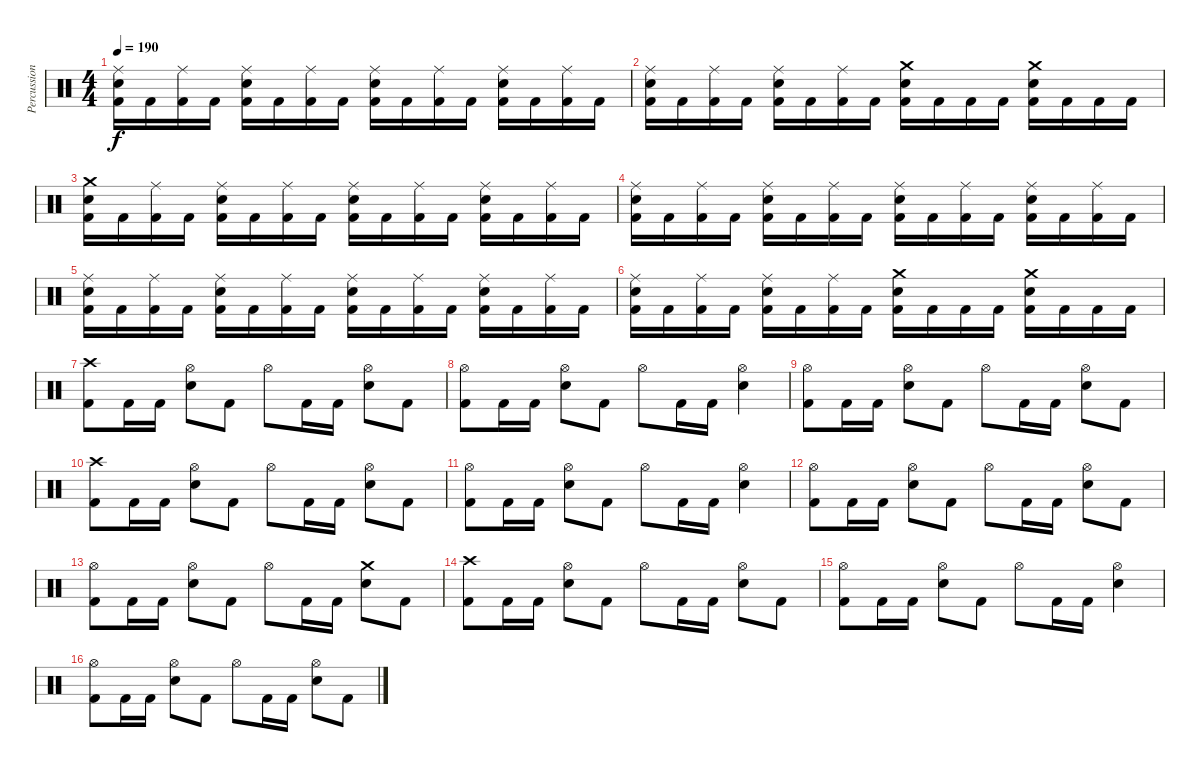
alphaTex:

\track ("Percussion" "Percussion") {instrument percussion}
\staff {score}
\articulation defaults
\ts (4 4)
\tempo 190
\clef neutral
\ks c
("Ride (middle)" "Snare (hit) 2" "Kick (hit) 2").16{dy f} "Kick (hit) 2".16 ("Ride (middle)" "Kick (hit) 2").16 "Kick (hit) 2".16 ("Ride (middle)" "Snare (hit) 2" "Kick (hit) 2").16 "Kick (hit) 2".16 ("Ride (middle)" "Kick (hit) 2").16 "Kick (hit) 2".16 ("Ride (middle)" "Snare (hit) 2" "Kick (hit) 2").16 "Kick (hit) 2".16 ("Ride (middle)" "Kick (hit) 2").16 "Kick (hit) 2".16 ("Ride (middle)" "Snare (hit) 2" "Kick (hit) 2").16 "Kick (hit) 2".16 ("Ride (middle)" "Kick (hit) 2").16 "Kick (hit) 2".16 |
("Ride (middle)" "Snare (hit) 2" "Kick (hit) 2").16 "Kick (hit) 2".16 ("Ride (middle)" "Kick (hit) 2").16 "Kick (hit) 2".16 ("Ride (middle)" "Snare (hit) 2" "Kick (hit) 2").16 "Kick (hit) 2".16 ("Ride (middle)" "Kick (hit) 2").16 "Kick (hit) 2".16 ("Crash medium (hit)" "Snare (hit) 2" "Kick (hit) 2").16 "Kick (hit) 2".16 "Kick (hit) 2".16 "Kick (hit) 2".16 ("Crash medium (hit)" "Snare (hit) 2" "Kick (hit) 2").16 "Kick (hit) 2".16 "Kick (hit) 2".16 "Kick (hit) 2".16 |
("Crash medium (hit)" "Snare (hit) 2" "Kick (hit) 2").16 "Kick (hit) 2".16 ("Ride (middle)" "Kick (hit) 2").16 "Kick (hit) 2".16 ("Ride (middle)" "Snare (hit) 2" "Kick (hit) 2").16 "Kick (hit) 2".16 ("Ride (middle)" "Kick (hit) 2").16 "Kick (hit) 2".16 ("Ride (middle)" "Snare (hit) 2" "Kick (hit) 2").16 "Kick (hit) 2".16 ("Ride (middle)" "Kick (hit) 2").16 "Kick (hit) 2".16 ("Ride (middle)" "Snare (hit) 2" "Kick (hit) 2").16 "Kick (hit) 2".16 ("Ride (middle)" "Kick (hit) 2").16 "Kick (hit) 2".16 |
("Ride (middle)" "Snare (hit) 2" "Kick (hit) 2").16 "Kick (hit) 2".16 ("Ride (middle)" "Kick (hit) 2").16 "Kick (hit) 2".16 ("Ride (middle)" "Snare (hit) 2" "Kick (hit) 2").16 "Kick (hit) 2".16 ("Ride (middle)" "Kick (hit) 2").16 "Kick (hit) 2".16 ("Ride (middle)" "Snare (hit) 2" "Kick (hit) 2").16 "Kick (hit) 2".16 ("Ride (middle)" "Kick (hit) 2").16 "Kick (hit) 2".16 ("Ride (middle)" "Snare (hit) 2" "Kick (hit) 2").16 "Kick (hit) 2".16 ("Ride (middle)" "Kick (hit) 2").16 "Kick (hit) 2".16 |
("Ride (middle)" "Snare (hit) 2" "Kick (hit) 2").16 "Kick (hit) 2".16 ("Ride (middle)" "Kick (hit) 2").16 "Kick (hit) 2".16 ("Ride (middle)" "Snare (hit) 2" "Kick (hit) 2").16 "Kick (hit) 2".16 ("Ride (middle)" "Kick (hit) 2").16 "Kick (hit) 2".16 ("Ride (middle)" "Snare (hit) 2" "Kick (hit) 2").16 "Kick (hit) 2".16 ("Ride (middle)" "Kick (hit) 2").16 "Kick (hit) 2".16 ("Ride (middle)" "Snare (hit) 2" "Kick (hit) 2").16 "Kick (hit) 2".16 ("Ride (middle)" "Kick (hit) 2").16 "Kick (hit) 2".16 |
("Ride (middle)" "Snare (hit) 2" "Kick (hit) 2").16 "Kick (hit) 2".16 ("Ride (middle)" "Kick (hit) 2").16 "Kick (hit) 2".16 ("Ride (middle)" "Snare (hit) 2" "Kick (hit) 2").16 "Kick (hit) 2".16 ("Ride (middle)" "Kick (hit) 2").16 "Kick (hit) 2".16 ("Crash medium (hit)" "Snare (hit) 2" "Kick (hit) 2").16 "Kick (hit) 2".16 "Kick (hit) 2".16 "Kick (hit) 2".16 ("Crash medium (hit)" "Snare (hit) 2" "Kick (hit) 2").16 "Kick (hit) 2".16 "Kick (hit) 2".16 "Kick (hit) 2".16 |
("Crash high (hit)" "Kick (hit) 2").8 "Kick (hit) 2".16 "Kick (hit) 2".16 ("Hi-Hat (open)" "Snare (hit) 2").8 "Kick (hit) 2".8 "Hi-Hat (open)".8 "Kick (hit) 2".16 "Kick (hit) 2".16 ("Hi-Hat (open)" "Snare (hit) 2").8 "Kick (hit) 2".8 |
("Hi-Hat (open)" "Kick (hit) 2").8 "Kick (hit) 2".16 "Kick (hit) 2".16 ("Hi-Hat (open)" "Snare (hit) 2").8 "Kick (hit) 2".8 "Hi-Hat (open)".8 "Kick (hit) 2".16 "Kick (hit) 2".16 ("Hi-Hat (open)" "Snare (hit) 2").4 |
("Hi-Hat (open)" "Kick (hit) 2").8 "Kick (hit) 2".16 "Kick (hit) 2".16 ("Hi-Hat (open)" "Snare (hit) 2").8 "Kick (hit) 2".8 "Hi-Hat (open)".8 "Kick (hit) 2".16 "Kick (hit) 2".16 ("Hi-Hat (open)" "Snare (hit) 2").8 "Kick (hit) 2".8 |
("Crash high (hit)" "Kick (hit) 2").8 "Kick (hit) 2".16 "Kick (hit) 2".16 ("Hi-Hat (open)" "Snare (hit) 2").8 "Kick (hit) 2".8 "Hi-Hat (open)".8 "Kick (hit) 2".16 "Kick (hit) 2".16 ("Hi-Hat (open)" "Snare (hit) 2").8 "Kick (hit) 2".8 |
("Hi-Hat (open)" "Kick (hit) 2").8 "Kick (hit) 2".16 "Kick (hit) 2".16 ("Hi-Hat (open)" "Snare (hit) 2").8 "Kick (hit) 2".8 "Hi-Hat (open)".8 "Kick (hit) 2".16 "Kick (hit) 2".16 ("Hi-Hat (open)" "Snare (hit) 2").4 |
("Hi-Hat (open)" "Kick (hit) 2").8 "Kick (hit) 2".16 "Kick (hit) 2".16 ("Hi-Hat (open)" "Snare (hit) 2").8 "Kick (hit) 2".8 "Hi-Hat (open)".8 "Kick (hit) 2".16 "Kick (hit) 2".16 ("Hi-Hat (open)" "Snare (hit) 2").8 "Kick (hit) 2".8 |
("Hi-Hat (open)" "Kick (hit) 2").8 "Kick (hit) 2".16 "Kick (hit) 2".16 ("Hi-Hat (open)" "Snare (hit) 2").8 "Kick (hit) 2".8 "Hi-Hat (open)".8 "Kick (hit) 2".16 "Kick (hit) 2".16 ("Crash medium (hit)" "Snare (hit) 2").8 "Kick (hit) 2".8 |
("Crash high (hit)" "Kick (hit) 2").8 "Kick (hit) 2".16 "Kick (hit) 2".16 ("Hi-Hat (open)" "Snare (hit) 2").8 "Kick (hit) 2".8 "Hi-Hat (open)".8 "Kick (hit) 2".16 "Kick (hit) 2".16 ("Hi-Hat (open)" "Snare (hit) 2").8 "Kick (hit) 2".8 |
("Hi-Hat (open)" "Kick (hit) 2").8 "Kick (hit) 2".16 "Kick (hit) 2".16 ("Hi-Hat (open)" "Snare (hit) 2").8 "Kick (hit) 2".8 "Hi-Hat (open)".8 "Kick (hit) 2".16 "Kick (hit) 2".16 ("Hi-Hat (open)" "Snare (hit) 2").4 |
("Hi-Hat (open)" "Kick (hit) 2").8 "Kick (hit) 2".16 "Kick (hit) 2".16 ("Hi-Hat (open)" "Snare (hit) 2").8 "Kick (hit) 2".8 "Hi-Hat (open)".8 "Kick (hit) 2".16 "Kick (hit) 2".16 ("Hi-Hat (open)" "Snare (hit) 2").8 "Kick (hit) 2".8
